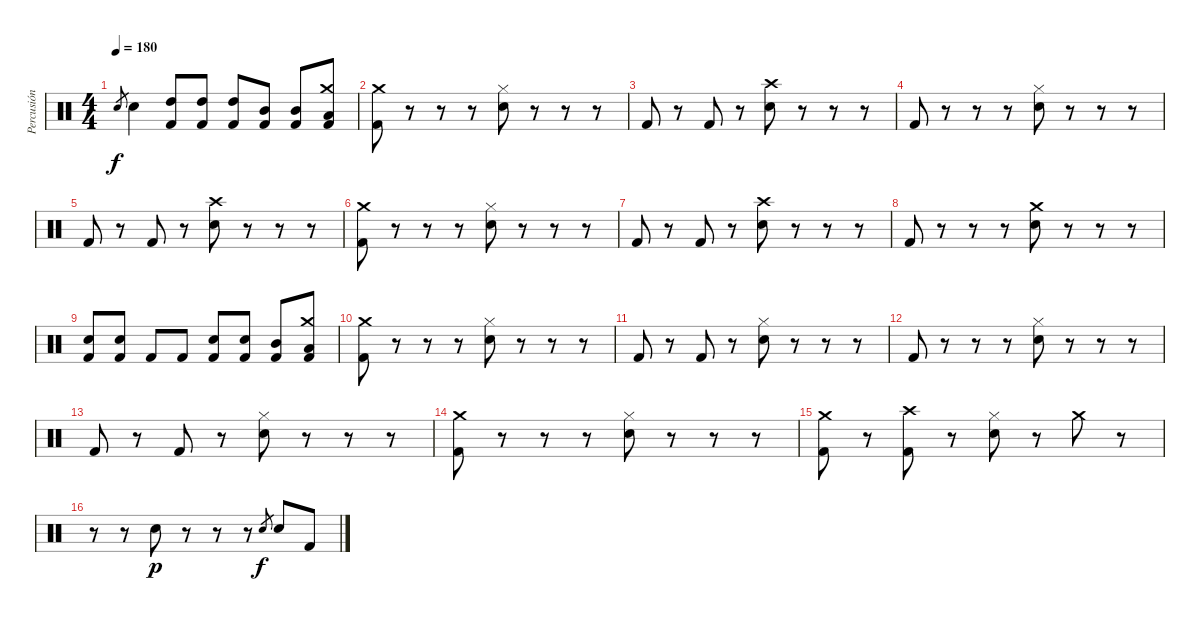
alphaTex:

\track ("Percusión" "Percusión") {instrument percussion}
\staff {score}
\articulation defaults
\ts (4 4)
\tempo 180
\clef neutral
\ks c "Snare (hit) 2".8{gr dy f} "Snare (hit) 2".4
("High Tom (hit)" "Kick (hit) 2").8 ("High Tom (hit)" "Kick (hit) 2").8 ("High Tom (hit)" "Kick (hit) 2").8 ("Mid Tom (hit)" "Kick (hit) 2").8 ("Mid Tom (hit)" "Kick (hit) 2").8 ("Crash medium (hit)" "Low Tom (hit)" "Kick (hit) 2").8 |
("Crash medium (hit)" "Kick (hit) 2").8 r.8 r.8 r.8 ("Hi-Hat (closed)" "Snare (hit) 2").8 r.8 r.8 r.8 |
"Kick (hit) 2".8 r.8 "Kick (hit) 2".8 r.8 ("Crash high (hit)" "Snare (hit) 2").8 r.8 r.8 r.8 |
"Kick (hit) 2".8 r.8 r.8 r.8 ("Hi-Hat (closed)" "Snare (hit) 2").8 r.8 r.8 r.8 |
"Kick (hit) 2".8 r.8 "Kick (hit) 2".8 r.8 ("Crash high (hit)" "Snare (hit) 2").8 r.8 r.8 r.8 |
("Crash medium (hit)" "Kick (hit) 2").8 r.8 r.8 r.8 ("Hi-Hat (closed)" "Snare (hit) 2").8 r.8 r.8 r.8 |
"Kick (hit) 2".8 r.8 "Kick (hit) 2".8 r.8 ("Crash high (hit)" "Snare (hit) 2").8 r.8 r.8 r.8 |
"Kick (hit) 2".8 r.8 r.8 r.8 ("Crash medium (hit)" "Snare (hit) 2").8 r.8 r.8 r.8 |
("Snare (hit) 2" "Kick (hit) 2").8 ("Snare (hit) 2" "Kick (hit) 2").8 "Kick (hit) 2".8 "Kick (hit) 2".8 ("Snare (hit) 2" "Kick (hit) 2").8 ("Snare (hit) 2" "Kick (hit) 2").8 ("Mid Tom (hit)" "Kick (hit) 2").8 ("Crash medium (hit)" "Low Tom (hit)" "Kick (hit) 2").8 |
("Crash medium (hit)" "Kick (hit) 2").8 r.8 r.8 r.8 ("Hi-Hat (closed)" "Snare (hit) 2").8 r.8 r.8 r.8 |
"Kick (hit) 2".8 r.8 "Kick (hit) 2".8 r.8 ("Hi-Hat (closed)" "Snare (hit) 2").8 r.8 r.8 r.8 |
"Kick (hit) 2".8 r.8 r.8 r.8 ("Hi-Hat (closed)" "Snare (hit) 2").8 r.8 r.8 r.8 |
"Kick (hit) 2".8 r.8 "Kick (hit) 2".8 r.8 ("Hi-Hat (closed)" "Snare (hit) 2").8 r.8 r.8 r.8 |
("Crash medium (hit)" "Kick (hit) 2").8 r.8 r.8 r.8 ("Hi-Hat (closed)" "Snare (hit) 2").8 r.8 r.8 r.8 |
("Crash medium (hit)" "Kick (hit) 2").8 r.8 ("Crash high (hit)" "Kick (hit) 2").8 r.8 ("Hi-Hat (closed)" "Snare (hit) 2").8 r.8 "Crash medium (hit)".8 r.8 |
r.8 r.8 "Snare (hit) 2".8{dy p} r.8 r.8 r.8 "Snare (hit) 2".8{gr dy f} "Snare (hit) 2".8 "Kick (hit) 2".8
